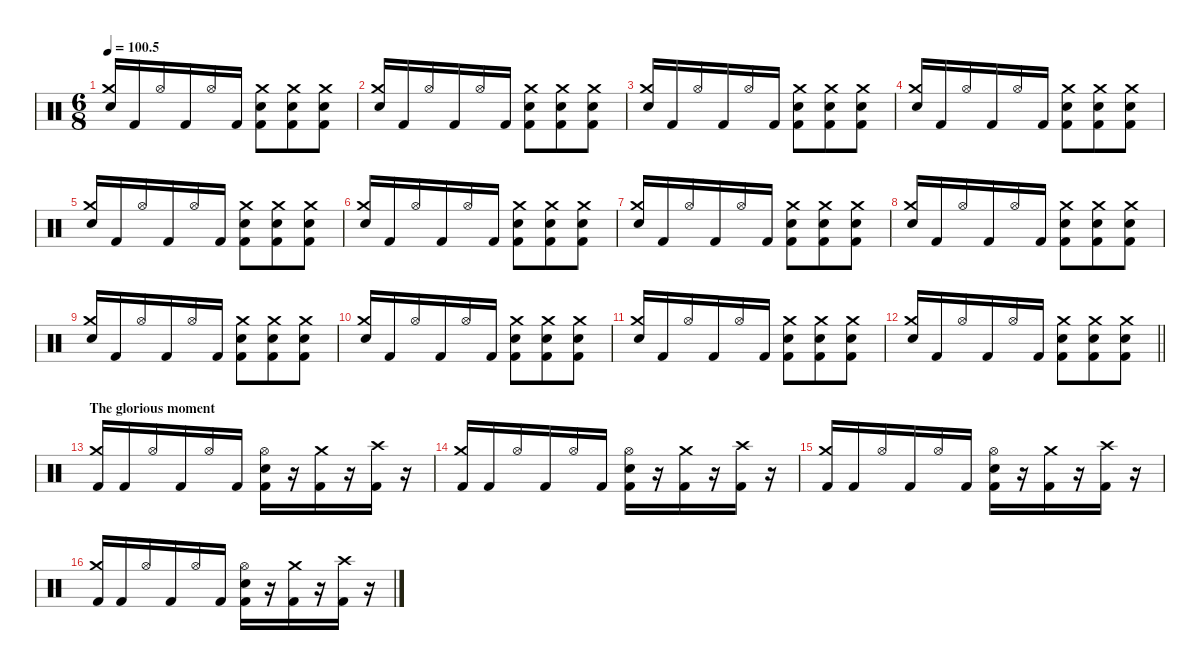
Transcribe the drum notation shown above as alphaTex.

\defaultSystemsLayout 4
\hideDynamics
\bracketExtendMode nobrackets
\singleTrackTrackNamePolicy hidden
\multiTrackTrackNamePolicy hidden
\firstSystemTrackNameMode fullname
\firstSystemTrackNameOrientation horizontal
\otherSystemsTrackNameOrientation horizontal
\track ("Drums" "drm.") {instrument percussion}
\staff {score}
\articulation defaults
\ts (6 8)
\tempo
100.5
\accidentals auto
\clef neutral
\ottava regular
\simile none
\ks c
("Crash medium (hit)" "Snare (hit) 2").16{dy f beam Up} "Kick (hit) 2".16{beam Up} "Hi-Hat (open)".16{beam Up} "Kick (hit) 2".16{beam Up} "Hi-Hat (open)".16{beam Up} "Kick (hit) 2".16{beam Up} ("Crash medium (hit)" "Snare (hit) 2" "Kick (hit) 2").8{beam Down} ("Crash medium (hit)" "Snare (hit) 2" "Kick (hit) 2").8{beam Down} ("Crash medium (hit)" "Snare (hit) 2" "Kick (hit) 2").8{beam Down} |
("Crash medium (hit)" "Snare (hit) 2").16{beam Up} "Kick (hit) 2".16{beam Up} "Hi-Hat (open)".16{beam Up} "Kick (hit) 2".16{beam Up} "Hi-Hat (open)".16{beam Up} "Kick (hit) 2".16{beam Up} ("Crash medium (hit)" "Snare (hit) 2" "Kick (hit) 2").8{beam Down} ("Crash medium (hit)" "Snare (hit) 2" "Kick (hit) 2").8{beam Down} ("Crash medium (hit)" "Snare (hit) 2" "Kick (hit) 2").8{beam Down} |
("Crash medium (hit)" "Snare (hit) 2").16{beam Up} "Kick (hit) 2".16{beam Up} "Hi-Hat (open)".16{beam Up} "Kick (hit) 2".16{beam Up} "Hi-Hat (open)".16{beam Up} "Kick (hit) 2".16{beam Up} ("Crash medium (hit)" "Snare (hit) 2" "Kick (hit) 2").8{beam Down} ("Crash medium (hit)" "Snare (hit) 2" "Kick (hit) 2").8{beam Down} ("Crash medium (hit)" "Snare (hit) 2" "Kick (hit) 2").8{beam Down} |
("Crash medium (hit)" "Snare (hit) 2").16{beam Up} "Kick (hit) 2".16{beam Up} "Hi-Hat (open)".16{beam Up} "Kick (hit) 2".16{beam Up} "Hi-Hat (open)".16{beam Up} "Kick (hit) 2".16{beam Up} ("Crash medium (hit)" "Snare (hit) 2" "Kick (hit) 2").8{beam Down} ("Crash medium (hit)" "Snare (hit) 2" "Kick (hit) 2").8{beam Down} ("Crash medium (hit)" "Snare (hit) 2" "Kick (hit) 2").8{beam Down} |
\section ("" "")
("Crash medium (hit)" "Snare (hit) 2").16{beam Up} "Kick (hit) 2".16{beam Up} "Hi-Hat (open)".16{beam Up} "Kick (hit) 2".16{beam Up} "Hi-Hat (open)".16{beam Up} "Kick (hit) 2".16{beam Up} ("Crash medium (hit)" "Snare (hit) 2" "Kick (hit) 2").8{beam Down} ("Crash medium (hit)" "Snare (hit) 2" "Kick (hit) 2").8{beam Down} ("Crash medium (hit)" "Snare (hit) 2" "Kick (hit) 2").8{beam Down} |
("Crash medium (hit)" "Snare (hit) 2").16{beam Up} "Kick (hit) 2".16{beam Up} "Hi-Hat (open)".16{beam Up} "Kick (hit) 2".16{beam Up} "Hi-Hat (open)".16{beam Up} "Kick (hit) 2".16{beam Up} ("Crash medium (hit)" "Snare (hit) 2" "Kick (hit) 2").8{beam Down} ("Crash medium (hit)" "Snare (hit) 2" "Kick (hit) 2").8{beam Down} ("Crash medium (hit)" "Snare (hit) 2" "Kick (hit) 2").8{beam Down} |
("Crash medium (hit)" "Snare (hit) 2").16{beam Up} "Kick (hit) 2".16{beam Up} "Hi-Hat (open)".16{beam Up} "Kick (hit) 2".16{beam Up} "Hi-Hat (open)".16{beam Up} "Kick (hit) 2".16{beam Up} ("Crash medium (hit)" "Snare (hit) 2" "Kick (hit) 2").8{beam Down} ("Crash medium (hit)" "Snare (hit) 2" "Kick (hit) 2").8{beam Down} ("Crash medium (hit)" "Snare (hit) 2" "Kick (hit) 2").8{beam Down} |
("Crash medium (hit)" "Snare (hit) 2").16{beam Up} "Kick (hit) 2".16{beam Up} "Hi-Hat (open)".16{beam Up} "Kick (hit) 2".16{beam Up} "Hi-Hat (open)".16{beam Up} "Kick (hit) 2".16{beam Up} ("Crash medium (hit)" "Snare (hit) 2" "Kick (hit) 2").8{beam Down} ("Crash medium (hit)" "Snare (hit) 2" "Kick (hit) 2").8{beam Down} ("Crash medium (hit)" "Snare (hit) 2" "Kick (hit) 2").8{beam Down} |
("Crash medium (hit)" "Snare (hit) 2").16{beam Up} "Kick (hit) 2".16{beam Up} "Hi-Hat (open)".16{beam Up} "Kick (hit) 2".16{beam Up} "Hi-Hat (open)".16{beam Up} "Kick (hit) 2".16{beam Up} ("Crash medium (hit)" "Snare (hit) 2" "Kick (hit) 2").8{beam Down} ("Crash medium (hit)" "Snare (hit) 2" "Kick (hit) 2").8{beam Down} ("Crash medium (hit)" "Snare (hit) 2" "Kick (hit) 2").8{beam Down} |
("Crash medium (hit)" "Snare (hit) 2").16{beam Up} "Kick (hit) 2".16{beam Up} "Hi-Hat (open)".16{beam Up} "Kick (hit) 2".16{beam Up} "Hi-Hat (open)".16{beam Up} "Kick (hit) 2".16{beam Up} ("Crash medium (hit)" "Snare (hit) 2" "Kick (hit) 2").8{beam Down} ("Crash medium (hit)" "Snare (hit) 2" "Kick (hit) 2").8{beam Down} ("Crash medium (hit)" "Snare (hit) 2" "Kick (hit) 2").8{beam Down} |
("Crash medium (hit)" "Snare (hit) 2").16{beam Up} "Kick (hit) 2".16{beam Up} "Hi-Hat (open)".16{beam Up} "Kick (hit) 2".16{beam Up} "Hi-Hat (open)".16{beam Up} "Kick (hit) 2".16{beam Up} ("Crash medium (hit)" "Snare (hit) 2" "Kick (hit) 2").8{beam Down} ("Crash medium (hit)" "Snare (hit) 2" "Kick (hit) 2").8{beam Down} ("Crash medium (hit)" "Snare (hit) 2" "Kick (hit) 2").8{beam Down} |
\barLineRight lightlight
("Crash medium (hit)" "Snare (hit) 2").16{beam Up} "Kick (hit) 2".16{beam Up} "Hi-Hat (open)".16{beam Up} "Kick (hit) 2".16{beam Up} "Hi-Hat (open)".16{beam Up} "Kick (hit) 2".16{beam Up} ("Crash medium (hit)" "Snare (hit) 2" "Kick (hit) 2").8{beam Down} ("Crash medium (hit)" "Snare (hit) 2" "Kick (hit) 2").8{beam Down} ("Crash medium (hit)" "Snare (hit) 2" "Kick (hit) 2").8{beam Down} |
\section ("" "The glorious moment")
("Crash medium (hit)" "Kick (hit) 2").16{beam Up} "Kick (hit) 2".16{beam Up} "Hi-Hat (open)".16{beam Up} "Kick (hit) 2".16{beam Up} "Hi-Hat (open)".16{beam Up} "Kick (hit) 2".16{beam Up} ("Hi-Hat (open)" "Snare (hit) 2" "Kick (hit) 2").16{beam Down} r.16{beam Down} ("Crash medium (hit)" "Kick (hit) 2").16{beam Down} r.16{beam Down} ("Crash high (hit)" "Kick (hit) 2").16{beam Down} r.16{beam Down} |
("Crash medium (hit)" "Kick (hit) 2").16{beam Up} "Kick (hit) 2".16{beam Up} "Hi-Hat (open)".16{beam Up} "Kick (hit) 2".16{beam Up} "Hi-Hat (open)".16{beam Up} "Kick (hit) 2".16{beam Up} ("Hi-Hat (open)" "Snare (hit) 2" "Kick (hit) 2").16{beam Down} r.16{beam Down} ("Crash medium (hit)" "Kick (hit) 2").16{beam Down} r.16{beam Down} ("Crash high (hit)" "Kick (hit) 2").16{beam Down} r.16{beam Down} |
("Crash medium (hit)" "Kick (hit) 2").16{beam Up} "Kick (hit) 2".16{beam Up} "Hi-Hat (open)".16{beam Up} "Kick (hit) 2".16{beam Up} "Hi-Hat (open)".16{beam Up} "Kick (hit) 2".16{beam Up} ("Hi-Hat (open)" "Snare (hit) 2" "Kick (hit) 2").16{beam Down} r.16{beam Down} ("Crash medium (hit)" "Kick (hit) 2").16{beam Down} r.16{beam Down} ("Crash high (hit)" "Kick (hit) 2").16{beam Down} r.16{beam Down} |
("Crash medium (hit)" "Kick (hit) 2").16{beam Up} "Kick (hit) 2".16{beam Up} "Hi-Hat (open)".16{beam Up} "Kick (hit) 2".16{beam Up} "Hi-Hat (open)".16{beam Up} "Kick (hit) 2".16{beam Up} ("Hi-Hat (open)" "Snare (hit) 2" "Kick (hit) 2").16{beam Down} r.16{beam Down} ("Crash medium (hit)" "Kick (hit) 2").16{beam Down} r.16{beam Down} ("Crash high (hit)" "Kick (hit) 2").16{beam Down} r.16{beam Down}
